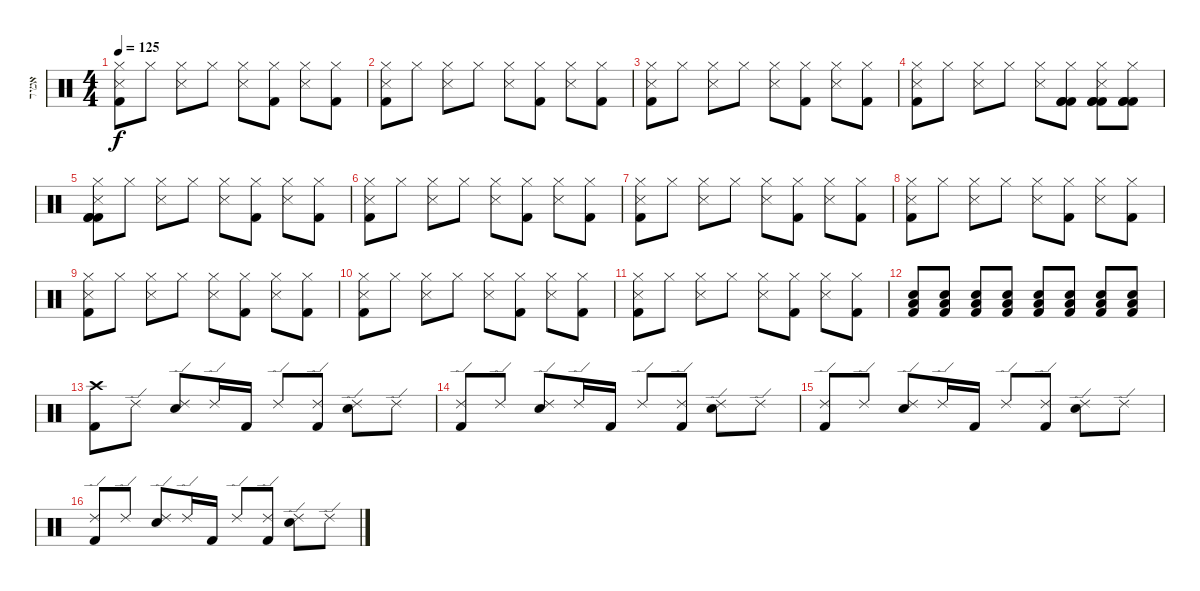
\track ("אמיר" "אמיר") {instrument percussion}
\staff {score}
\articulation defaults
\ts (4 4)
\tempo 125
\clef neutral
\ks c
("Hi-Hat (closed)" "Snare (side stick) 3" "Kick (hit) 2").8{dy f} "Hi-Hat (closed)".8 ("Hi-Hat (closed)" "Snare (side stick) 3").8 "Hi-Hat (closed)".8 ("Hi-Hat (closed)" "Snare (side stick) 3").8 ("Hi-Hat (closed)" "Kick (hit) 2").8 ("Hi-Hat (closed)" "Snare (side stick) 3").8 ("Hi-Hat (closed)" "Kick (hit) 2").8 |
("Hi-Hat (closed)" "Snare (side stick) 3" "Kick (hit) 2").8 "Hi-Hat (closed)".8 ("Hi-Hat (closed)" "Snare (side stick) 3").8 "Hi-Hat (closed)".8 ("Hi-Hat (closed)" "Snare (side stick) 3").8 ("Hi-Hat (closed)" "Kick (hit) 2").8 ("Hi-Hat (closed)" "Snare (side stick) 3").8 ("Hi-Hat (closed)" "Kick (hit) 2").8 |
("Hi-Hat (closed)" "Snare (side stick) 3" "Kick (hit) 2").8 "Hi-Hat (closed)".8 ("Hi-Hat (closed)" "Snare (side stick) 3").8 "Hi-Hat (closed)".8 ("Hi-Hat (closed)" "Snare (side stick) 3").8 ("Hi-Hat (closed)" "Kick (hit) 2").8 ("Hi-Hat (closed)" "Snare (side stick) 3").8 ("Hi-Hat (closed)" "Kick (hit) 2").8 |
("Hi-Hat (closed)" "Snare (side stick) 3" "Kick (hit) 2").8 "Hi-Hat (closed)".8 ("Hi-Hat (closed)" "Snare (side stick) 3").8 "Hi-Hat (closed)".8 ("Hi-Hat (closed)" "Snare (side stick) 3").8 ("Hi-Hat (closed)" "Kick (hit) 2" "Kick (hit) 2" "Kick (hit) 2").8 ("Hi-Hat (closed)" "Snare (side stick) 3" "Kick (hit) 2" "Kick (hit) 2" "Kick (hit) 2").8 ("Hi-Hat (closed)" "Kick (hit) 2" "Kick (hit) 2" "Kick (hit) 2").8 |
("Hi-Hat (closed)" "Snare (side stick) 3" "Kick (hit) 2" "Kick (hit) 2" "Kick (hit) 2").8 "Hi-Hat (closed)".8 ("Hi-Hat (closed)" "Snare (side stick) 3").8 "Hi-Hat (closed)".8 ("Hi-Hat (closed)" "Snare (side stick) 3").8 ("Hi-Hat (closed)" "Kick (hit) 2").8 ("Hi-Hat (closed)" "Snare (side stick) 3").8 ("Hi-Hat (closed)" "Kick (hit) 2").8 |
("Hi-Hat (closed)" "Snare (side stick) 3" "Kick (hit) 2").8 "Hi-Hat (closed)".8 ("Hi-Hat (closed)" "Snare (side stick) 3").8 "Hi-Hat (closed)".8 ("Hi-Hat (closed)" "Snare (side stick) 3").8 ("Hi-Hat (closed)" "Kick (hit) 2").8 ("Hi-Hat (closed)" "Snare (side stick) 3").8 ("Hi-Hat (closed)" "Kick (hit) 2").8 |
("Hi-Hat (closed)" "Snare (side stick) 3" "Kick (hit) 2").8 "Hi-Hat (closed)".8 ("Hi-Hat (closed)" "Snare (side stick) 3").8 "Hi-Hat (closed)".8 ("Hi-Hat (closed)" "Snare (side stick) 3").8 ("Hi-Hat (closed)" "Kick (hit) 2").8 ("Hi-Hat (closed)" "Snare (side stick) 3").8 ("Hi-Hat (closed)" "Kick (hit) 2").8 |
("Hi-Hat (closed)" "Snare (side stick) 3" "Kick (hit) 2").8 "Hi-Hat (closed)".8 ("Hi-Hat (closed)" "Snare (side stick) 3").8 "Hi-Hat (closed)".8 ("Hi-Hat (closed)" "Snare (side stick) 3").8 ("Hi-Hat (closed)" "Kick (hit) 2").8 ("Hi-Hat (closed)" "Snare (side stick) 3").8 ("Hi-Hat (closed)" "Kick (hit) 2").8 |
("Hi-Hat (closed)" "Snare (side stick) 3" "Kick (hit) 2").8 "Hi-Hat (closed)".8 ("Hi-Hat (closed)" "Snare (side stick) 3").8 "Hi-Hat (closed)".8 ("Hi-Hat (closed)" "Snare (side stick) 3").8 ("Hi-Hat (closed)" "Kick (hit) 2").8 ("Hi-Hat (closed)" "Snare (side stick) 3").8 ("Hi-Hat (closed)" "Kick (hit) 2").8 |
("Hi-Hat (closed)" "Snare (side stick) 3" "Kick (hit) 2").8 "Hi-Hat (closed)".8 ("Hi-Hat (closed)" "Snare (side stick) 3").8 "Hi-Hat (closed)".8 ("Hi-Hat (closed)" "Snare (side stick) 3").8 ("Hi-Hat (closed)" "Kick (hit) 2").8 ("Hi-Hat (closed)" "Snare (side stick) 3").8 ("Hi-Hat (closed)" "Kick (hit) 2").8 |
("Hi-Hat (closed)" "Snare (side stick) 3" "Kick (hit) 2").8 "Hi-Hat (closed)".8 ("Hi-Hat (closed)" "Snare (side stick) 3").8 "Hi-Hat (closed)".8 ("Hi-Hat (closed)" "Snare (side stick) 3").8 ("Hi-Hat (closed)" "Kick (hit) 2").8 ("Hi-Hat (closed)" "Snare (side stick) 3").8 ("Hi-Hat (closed)" "Kick (hit) 2").8 |
("Snare (hit) 2" "Low Floor Tom (hit)" "Kick (hit) 2").8 ("Snare (hit) 2" "Low Floor Tom (hit)" "Kick (hit) 2").8 ("Snare (hit) 2" "Low Floor Tom (hit)" "Kick (hit) 2").8 ("Snare (hit) 2" "Low Floor Tom (hit)" "Kick (hit) 2").8 ("Snare (hit) 2" "Low Floor Tom (hit)" "Kick (hit) 2").8 ("Snare (hit) 2" "Low Floor Tom (hit)" "Kick (hit) 2").8 ("Snare (hit) 2" "Low Floor Tom (hit)" "Kick (hit) 2").8 ("Snare (hit) 2" "Low Floor Tom (hit)" "Kick (hit) 2").8 |
("Crash high (hit)" "Kick (hit) 2").8 "Ride (edge) 2".8 ("Ride (edge) 2" "Snare (hit) 2").8 "Ride (edge) 2".16 "Kick (hit) 2".16 "Ride (edge) 2".8 ("Ride (edge) 2" "Kick (hit) 2").8 ("Ride (edge) 2" "Snare (hit) 2").8 "Ride (edge) 2".8 |
("Ride (edge) 2" "Kick (hit) 2").8 "Ride (edge) 2".8 ("Ride (edge) 2" "Snare (hit) 2").8 "Ride (edge) 2".16 "Kick (hit) 2".16 "Ride (edge) 2".8 ("Ride (edge) 2" "Kick (hit) 2").8 ("Ride (edge) 2" "Snare (hit) 2").8 "Ride (edge) 2".8 |
("Ride (edge) 2" "Kick (hit) 2").8 "Ride (edge) 2".8 ("Ride (edge) 2" "Snare (hit) 2").8 "Ride (edge) 2".16 "Kick (hit) 2".16 "Ride (edge) 2".8 ("Ride (edge) 2" "Kick (hit) 2").8 ("Ride (edge) 2" "Snare (hit) 2").8 "Ride (edge) 2".8 |
("Ride (edge) 2" "Kick (hit) 2").8 "Ride (edge) 2".8 ("Ride (edge) 2" "Snare (hit) 2").8 "Ride (edge) 2".16 "Kick (hit) 2".16 "Ride (edge) 2".8 ("Ride (edge) 2" "Kick (hit) 2").8 ("Ride (edge) 2" "Snare (hit) 2").8 "Ride (edge) 2".8
